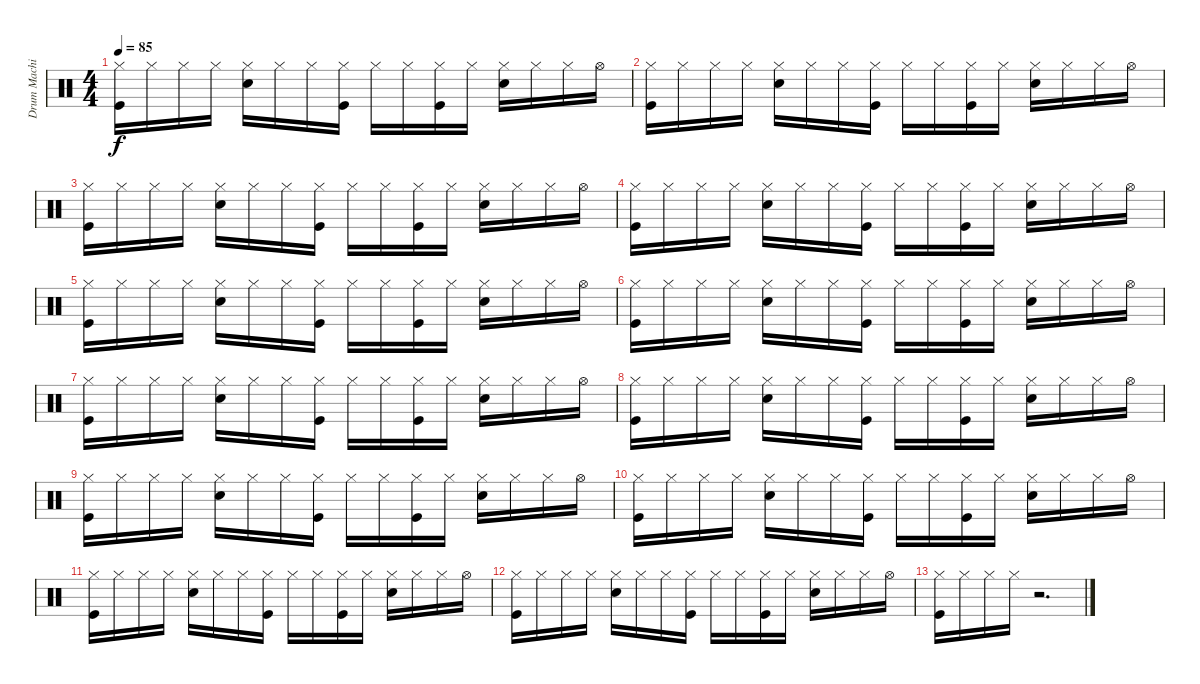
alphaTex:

\track ("Drum Machine" "Drum Machi") {instrument percussion}
\staff {score}
\articulation defaults
\ts (4 4)
\tempo 85
\clef neutral
\ks c
("Hi-Hat (closed)" "Kick (hit)").16{dy f} "Hi-Hat (closed)".16 "Hi-Hat (closed)".16 "Hi-Hat (closed)".16 ("Hi-Hat (closed)" "Snare (hit) 2").16 "Hi-Hat (closed)".16 "Hi-Hat (closed)".16 ("Hi-Hat (closed)" "Kick (hit)").16 "Hi-Hat (closed)".16 "Hi-Hat (closed)".16 ("Hi-Hat (closed)" "Kick (hit)").16 "Hi-Hat (closed)".16 ("Hi-Hat (closed)" "Snare (hit) 2").16 "Hi-Hat (closed)".16 "Hi-Hat (closed)".16 "Hi-Hat (open)".16 |
("Hi-Hat (closed)" "Kick (hit)").16 "Hi-Hat (closed)".16 "Hi-Hat (closed)".16 "Hi-Hat (closed)".16 ("Hi-Hat (closed)" "Snare (hit) 2").16 "Hi-Hat (closed)".16 "Hi-Hat (closed)".16 ("Hi-Hat (closed)" "Kick (hit)").16 "Hi-Hat (closed)".16 "Hi-Hat (closed)".16 ("Hi-Hat (closed)" "Kick (hit)").16 "Hi-Hat (closed)".16 ("Hi-Hat (closed)" "Snare (hit) 2").16 "Hi-Hat (closed)".16 "Hi-Hat (closed)".16 "Hi-Hat (open)".16 |
("Hi-Hat (closed)" "Kick (hit)").16 "Hi-Hat (closed)".16 "Hi-Hat (closed)".16 "Hi-Hat (closed)".16 ("Hi-Hat (closed)" "Snare (hit) 2").16 "Hi-Hat (closed)".16 "Hi-Hat (closed)".16 ("Hi-Hat (closed)" "Kick (hit)").16 "Hi-Hat (closed)".16 "Hi-Hat (closed)".16 ("Hi-Hat (closed)" "Kick (hit)").16 "Hi-Hat (closed)".16 ("Hi-Hat (closed)" "Snare (hit) 2").16 "Hi-Hat (closed)".16 "Hi-Hat (closed)".16 "Hi-Hat (open)".16 |
("Hi-Hat (closed)" "Kick (hit)").16 "Hi-Hat (closed)".16 "Hi-Hat (closed)".16 "Hi-Hat (closed)".16 ("Hi-Hat (closed)" "Snare (hit) 2").16 "Hi-Hat (closed)".16 "Hi-Hat (closed)".16 ("Hi-Hat (closed)" "Kick (hit)").16 "Hi-Hat (closed)".16 "Hi-Hat (closed)".16 ("Hi-Hat (closed)" "Kick (hit)").16 "Hi-Hat (closed)".16 ("Hi-Hat (closed)" "Snare (hit) 2").16 "Hi-Hat (closed)".16 "Hi-Hat (closed)".16 "Hi-Hat (open)".16 |
("Hi-Hat (closed)" "Kick (hit)").16 "Hi-Hat (closed)".16 "Hi-Hat (closed)".16 "Hi-Hat (closed)".16 ("Hi-Hat (closed)" "Snare (hit) 2").16 "Hi-Hat (closed)".16 "Hi-Hat (closed)".16 ("Hi-Hat (closed)" "Kick (hit)").16 "Hi-Hat (closed)".16 "Hi-Hat (closed)".16 ("Hi-Hat (closed)" "Kick (hit)").16 "Hi-Hat (closed)".16 ("Hi-Hat (closed)" "Snare (hit) 2").16 "Hi-Hat (closed)".16 "Hi-Hat (closed)".16 "Hi-Hat (open)".16 |
("Hi-Hat (closed)" "Kick (hit)").16 "Hi-Hat (closed)".16 "Hi-Hat (closed)".16 "Hi-Hat (closed)".16 ("Hi-Hat (closed)" "Snare (hit) 2").16 "Hi-Hat (closed)".16 "Hi-Hat (closed)".16 ("Hi-Hat (closed)" "Kick (hit)").16 "Hi-Hat (closed)".16 "Hi-Hat (closed)".16 ("Hi-Hat (closed)" "Kick (hit)").16 "Hi-Hat (closed)".16 ("Hi-Hat (closed)" "Snare (hit) 2").16 "Hi-Hat (closed)".16 "Hi-Hat (closed)".16 "Hi-Hat (open)".16 |
("Hi-Hat (closed)" "Kick (hit)").16 "Hi-Hat (closed)".16 "Hi-Hat (closed)".16 "Hi-Hat (closed)".16 ("Hi-Hat (closed)" "Snare (hit) 2").16 "Hi-Hat (closed)".16 "Hi-Hat (closed)".16 ("Hi-Hat (closed)" "Kick (hit)").16 "Hi-Hat (closed)".16 "Hi-Hat (closed)".16 ("Hi-Hat (closed)" "Kick (hit)").16 "Hi-Hat (closed)".16 ("Hi-Hat (closed)" "Snare (hit) 2").16 "Hi-Hat (closed)".16 "Hi-Hat (closed)".16 "Hi-Hat (open)".16 |
("Hi-Hat (closed)" "Kick (hit)").16 "Hi-Hat (closed)".16 "Hi-Hat (closed)".16 "Hi-Hat (closed)".16 ("Hi-Hat (closed)" "Snare (hit) 2").16 "Hi-Hat (closed)".16 "Hi-Hat (closed)".16 ("Hi-Hat (closed)" "Kick (hit)").16 "Hi-Hat (closed)".16 "Hi-Hat (closed)".16 ("Hi-Hat (closed)" "Kick (hit)").16 "Hi-Hat (closed)".16 ("Hi-Hat (closed)" "Snare (hit) 2").16 "Hi-Hat (closed)".16 "Hi-Hat (closed)".16 "Hi-Hat (open)".16 |
("Hi-Hat (closed)" "Kick (hit)").16 "Hi-Hat (closed)".16 "Hi-Hat (closed)".16 "Hi-Hat (closed)".16 ("Hi-Hat (closed)" "Snare (hit) 2").16 "Hi-Hat (closed)".16 "Hi-Hat (closed)".16 ("Hi-Hat (closed)" "Kick (hit)").16 "Hi-Hat (closed)".16 "Hi-Hat (closed)".16 ("Hi-Hat (closed)" "Kick (hit)").16 "Hi-Hat (closed)".16 ("Hi-Hat (closed)" "Snare (hit) 2").16 "Hi-Hat (closed)".16 "Hi-Hat (closed)".16 "Hi-Hat (open)".16 |
("Hi-Hat (closed)" "Kick (hit)").16 "Hi-Hat (closed)".16 "Hi-Hat (closed)".16 "Hi-Hat (closed)".16 ("Hi-Hat (closed)" "Snare (hit) 2").16 "Hi-Hat (closed)".16 "Hi-Hat (closed)".16 ("Hi-Hat (closed)" "Kick (hit)").16 "Hi-Hat (closed)".16 "Hi-Hat (closed)".16 ("Hi-Hat (closed)" "Kick (hit)").16 "Hi-Hat (closed)".16 ("Hi-Hat (closed)" "Snare (hit) 2").16 "Hi-Hat (closed)".16 "Hi-Hat (closed)".16 "Hi-Hat (open)".16 |
("Hi-Hat (closed)" "Kick (hit)").16 "Hi-Hat (closed)".16 "Hi-Hat (closed)".16 "Hi-Hat (closed)".16 ("Hi-Hat (closed)" "Snare (hit) 2").16 "Hi-Hat (closed)".16 "Hi-Hat (closed)".16 ("Hi-Hat (closed)" "Kick (hit)").16 "Hi-Hat (closed)".16 "Hi-Hat (closed)".16 ("Hi-Hat (closed)" "Kick (hit)").16 "Hi-Hat (closed)".16 ("Hi-Hat (closed)" "Snare (hit) 2").16 "Hi-Hat (closed)".16 "Hi-Hat (closed)".16 "Hi-Hat (open)".16 |
("Hi-Hat (closed)" "Kick (hit)").16 "Hi-Hat (closed)".16 "Hi-Hat (closed)".16 "Hi-Hat (closed)".16 ("Hi-Hat (closed)" "Snare (hit) 2").16 "Hi-Hat (closed)".16 "Hi-Hat (closed)".16 ("Hi-Hat (closed)" "Kick (hit)").16 "Hi-Hat (closed)".16 "Hi-Hat (closed)".16 ("Hi-Hat (closed)" "Kick (hit)").16 "Hi-Hat (closed)".16 ("Hi-Hat (closed)" "Snare (hit) 2").16 "Hi-Hat (closed)".16 "Hi-Hat (closed)".16 "Hi-Hat (open)".16 |
("Hi-Hat (closed)" "Kick (hit)").16 "Hi-Hat (closed)".16 "Hi-Hat (closed)".16 "Hi-Hat (closed)".16 r.2{d}
